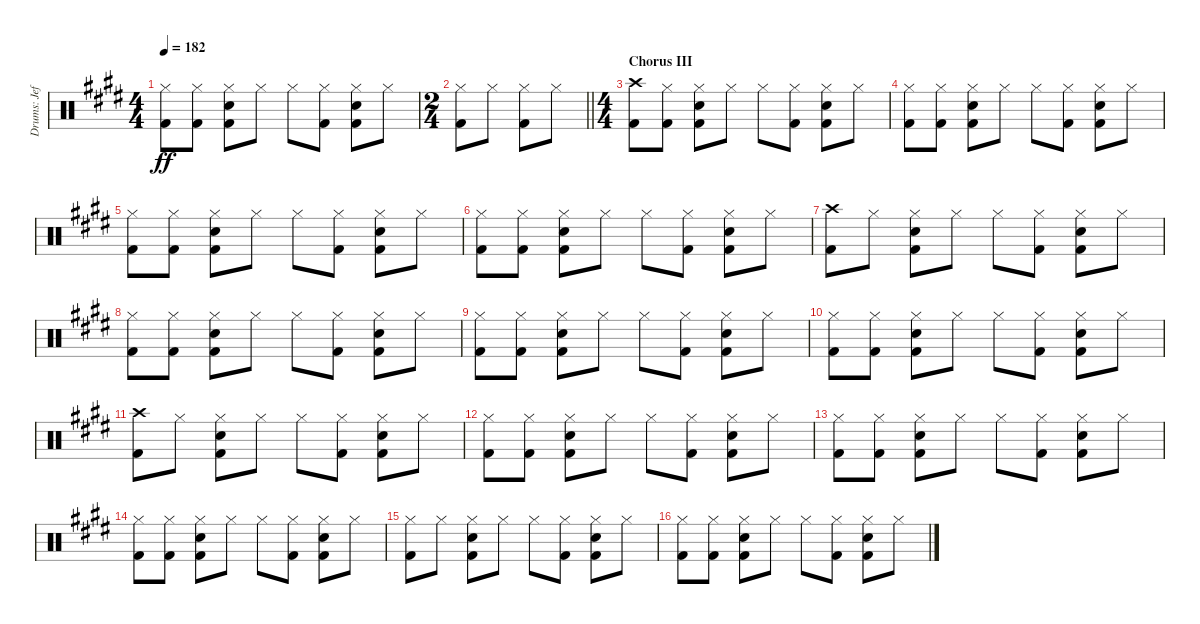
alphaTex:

\track ("Drums: Jeff" "Drums: Jef") {instrument percussion}
\staff {score}
\articulation defaults
\ts (4 4)
\tempo 182
\clef neutral
\ks e
("Hi-Hat (closed)" "Kick (hit) 2").8{dy ff} ("Hi-Hat (closed)" "Kick (hit) 2").8 ("Hi-Hat (closed)" "Electric Snare (hit)" "Kick (hit) 2").8 "Hi-Hat (closed)".8 "Hi-Hat (closed)".8 ("Hi-Hat (closed)" "Kick (hit) 2").8 ("Hi-Hat (closed)" "Electric Snare (hit)" "Kick (hit) 2").8 "Hi-Hat (closed)".8 |
\ts (2 4)
\barLineRight lightlight
("Hi-Hat (closed)" "Kick (hit) 2").8 "Hi-Hat (closed)".8 ("Hi-Hat (closed)" "Kick (hit) 2").8 "Hi-Hat (closed)".8 |
\ts (4 4)
\section ("" "Chorus III")
("Crash high (hit)" "Kick (hit) 2").8 ("Hi-Hat (closed)" "Kick (hit) 2").8 ("Hi-Hat (closed)" "Electric Snare (hit)" "Kick (hit) 2").8 "Hi-Hat (closed)".8 "Hi-Hat (closed)".8 ("Hi-Hat (closed)" "Kick (hit) 2").8 ("Hi-Hat (closed)" "Electric Snare (hit)" "Kick (hit) 2").8 "Hi-Hat (closed)".8 |
("Hi-Hat (closed)" "Kick (hit) 2").8 ("Hi-Hat (closed)" "Kick (hit) 2").8 ("Hi-Hat (closed)" "Electric Snare (hit)" "Kick (hit) 2").8 "Hi-Hat (closed)".8 "Hi-Hat (closed)".8 ("Hi-Hat (closed)" "Kick (hit) 2").8 ("Hi-Hat (closed)" "Electric Snare (hit)" "Kick (hit) 2").8 "Hi-Hat (closed)".8 |
("Hi-Hat (closed)" "Kick (hit) 2").8 ("Hi-Hat (closed)" "Kick (hit) 2").8 ("Hi-Hat (closed)" "Electric Snare (hit)" "Kick (hit) 2").8 "Hi-Hat (closed)".8 "Hi-Hat (closed)".8 ("Hi-Hat (closed)" "Kick (hit) 2").8 ("Hi-Hat (closed)" "Electric Snare (hit)" "Kick (hit) 2").8 "Hi-Hat (closed)".8 |
("Hi-Hat (closed)" "Kick (hit) 2").8 ("Hi-Hat (closed)" "Kick (hit) 2").8 ("Hi-Hat (closed)" "Electric Snare (hit)" "Kick (hit) 2").8 "Hi-Hat (closed)".8 "Hi-Hat (closed)".8 ("Hi-Hat (closed)" "Kick (hit) 2").8 ("Hi-Hat (closed)" "Electric Snare (hit)" "Kick (hit) 2").8 "Hi-Hat (closed)".8 |
("Crash high (hit)" "Kick (hit) 2").8 "Hi-Hat (closed)".8 ("Hi-Hat (closed)" "Electric Snare (hit)" "Kick (hit) 2").8 "Hi-Hat (closed)".8 "Hi-Hat (closed)".8 ("Hi-Hat (closed)" "Kick (hit) 2").8 ("Hi-Hat (closed)" "Electric Snare (hit)" "Kick (hit) 2").8 "Hi-Hat (closed)".8 |
("Hi-Hat (closed)" "Kick (hit) 2").8 ("Hi-Hat (closed)" "Kick (hit) 2").8 ("Hi-Hat (closed)" "Electric Snare (hit)" "Kick (hit) 2").8 "Hi-Hat (closed)".8 "Hi-Hat (closed)".8 ("Hi-Hat (closed)" "Kick (hit) 2").8 ("Hi-Hat (closed)" "Electric Snare (hit)" "Kick (hit) 2").8 "Hi-Hat (closed)".8 |
("Hi-Hat (closed)" "Kick (hit) 2").8 ("Hi-Hat (closed)" "Kick (hit) 2").8 ("Hi-Hat (closed)" "Electric Snare (hit)" "Kick (hit) 2").8 "Hi-Hat (closed)".8 "Hi-Hat (closed)".8 ("Hi-Hat (closed)" "Kick (hit) 2").8 ("Hi-Hat (closed)" "Electric Snare (hit)" "Kick (hit) 2").8 "Hi-Hat (closed)".8 |
("Hi-Hat (closed)" "Kick (hit) 2").8 ("Hi-Hat (closed)" "Kick (hit) 2").8 ("Hi-Hat (closed)" "Electric Snare (hit)" "Kick (hit) 2").8 "Hi-Hat (closed)".8 "Hi-Hat (closed)".8 ("Hi-Hat (closed)" "Kick (hit) 2").8 ("Hi-Hat (closed)" "Electric Snare (hit)" "Kick (hit) 2").8 "Hi-Hat (closed)".8 |
("Crash high (hit)" "Kick (hit) 2").8 "Hi-Hat (closed)".8 ("Hi-Hat (closed)" "Electric Snare (hit)" "Kick (hit) 2").8 "Hi-Hat (closed)".8 "Hi-Hat (closed)".8 ("Hi-Hat (closed)" "Kick (hit) 2").8 ("Hi-Hat (closed)" "Electric Snare (hit)" "Kick (hit) 2").8 "Hi-Hat (closed)".8 |
("Hi-Hat (closed)" "Kick (hit) 2").8 ("Hi-Hat (closed)" "Kick (hit) 2").8 ("Hi-Hat (closed)" "Electric Snare (hit)" "Kick (hit) 2").8 "Hi-Hat (closed)".8 "Hi-Hat (closed)".8 ("Hi-Hat (closed)" "Kick (hit) 2").8 ("Hi-Hat (closed)" "Electric Snare (hit)" "Kick (hit) 2").8 "Hi-Hat (closed)".8 |
("Hi-Hat (closed)" "Kick (hit) 2").8 ("Hi-Hat (closed)" "Kick (hit) 2").8 ("Hi-Hat (closed)" "Electric Snare (hit)" "Kick (hit) 2").8 "Hi-Hat (closed)".8 "Hi-Hat (closed)".8 ("Hi-Hat (closed)" "Kick (hit) 2").8 ("Hi-Hat (closed)" "Electric Snare (hit)" "Kick (hit) 2").8 "Hi-Hat (closed)".8 |
("Hi-Hat (closed)" "Kick (hit) 2").8 ("Hi-Hat (closed)" "Kick (hit) 2").8 ("Hi-Hat (closed)" "Electric Snare (hit)" "Kick (hit) 2").8 "Hi-Hat (closed)".8 "Hi-Hat (closed)".8 ("Hi-Hat (closed)" "Kick (hit) 2").8 ("Hi-Hat (closed)" "Electric Snare (hit)" "Kick (hit) 2").8 "Hi-Hat (closed)".8 |
("Hi-Hat (closed)" "Kick (hit) 2").8 "Hi-Hat (closed)".8 ("Hi-Hat (closed)" "Electric Snare (hit)" "Kick (hit) 2").8 "Hi-Hat (closed)".8 "Hi-Hat (closed)".8 ("Hi-Hat (closed)" "Kick (hit) 2").8 ("Hi-Hat (closed)" "Electric Snare (hit)" "Kick (hit) 2").8 "Hi-Hat (closed)".8 |
("Hi-Hat (closed)" "Kick (hit) 2").8 ("Hi-Hat (closed)" "Kick (hit) 2").8 ("Hi-Hat (closed)" "Electric Snare (hit)" "Kick (hit) 2").8 "Hi-Hat (closed)".8 "Hi-Hat (closed)".8 ("Hi-Hat (closed)" "Kick (hit) 2").8 ("Hi-Hat (closed)" "Electric Snare (hit)" "Kick (hit) 2").8 "Hi-Hat (closed)".8
